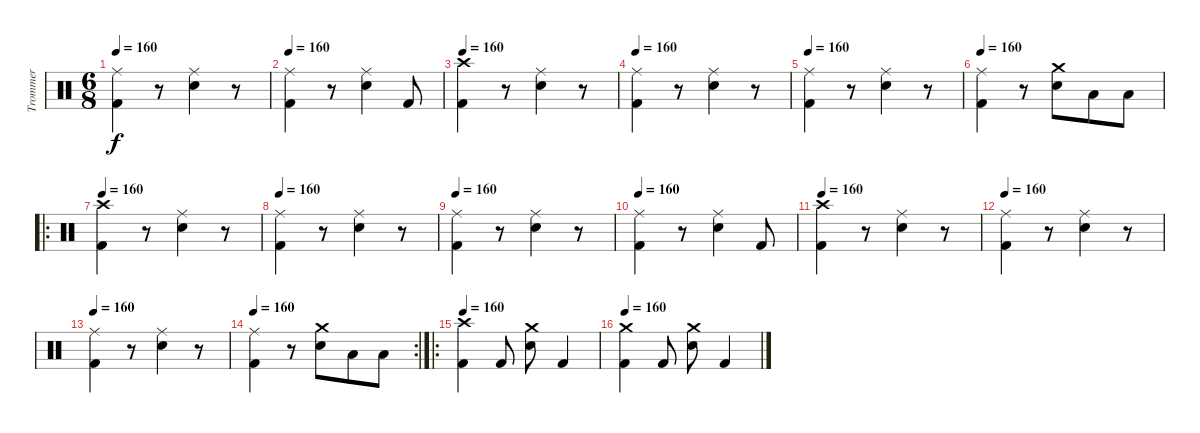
\track ("Trommer" "Trommer") {instrument percussion}
\staff {score}
\articulation defaults
\ts (6 8)
\tempo 160
\clef neutral
\ks c
("Kick (hit) 2" "Ride (middle)").4{dy f} r.8 ("Snare (hit) 2" "Ride (middle)").4 r.8 |
\tempo 160
("Kick (hit) 2" "Ride (middle)").4 r.8 ("Snare (hit) 2" "Ride (middle)").4 "Kick (hit) 2".8 |
\tempo 160
("Kick (hit) 2" "Crash high (hit)").4 r.8 ("Snare (hit) 2" "Ride (middle)").4 r.8 |
\tempo 160
("Kick (hit) 2" "Ride (middle)").4 r.8 ("Snare (hit) 2" "Ride (middle)").4 r.8 |
\tempo 160
("Kick (hit) 2" "Ride (middle)").4 r.8 ("Snare (hit) 2" "Ride (middle)").4 r.8 |
\tempo 160
("Kick (hit) 2" "Ride (middle)").4 r.8 ("Snare (hit) 2" "Crash medium (hit)").8 "Low Tom (hit)".8 "Low Floor Tom (hit)".8 |
\ro
\tempo 160
("Kick (hit) 2" "Crash high (hit)").4 r.8 ("Snare (hit) 2" "Ride (middle)").4 r.8 |
\tempo 160
("Kick (hit) 2" "Ride (middle)").4 r.8 ("Snare (hit) 2" "Ride (middle)").4 r.8 |
\tempo 160
("Kick (hit) 2" "Ride (middle)").4 r.8 ("Snare (hit) 2" "Ride (middle)").4 r.8 |
\tempo 160
("Kick (hit) 2" "Ride (middle)").4 r.8 ("Snare (hit) 2" "Ride (middle)").4 "Kick (hit) 2".8 |
\tempo 160
("Kick (hit) 2" "Crash high (hit)").4 r.8 ("Snare (hit) 2" "Ride (middle)").4 r.8 |
\tempo 160
("Kick (hit) 2" "Ride (middle)").4 r.8 ("Snare (hit) 2" "Ride (middle)").4 r.8 |
\tempo 160
("Kick (hit) 2" "Ride (middle)").4 r.8 ("Snare (hit) 2" "Ride (middle)").4 r.8 |
\rc 2
\tempo 160
("Kick (hit) 2" "Ride (middle)").4 r.8 ("Snare (hit) 2" "Crash medium (hit)").8 "Low Tom (hit)".8 "Low Floor Tom (hit)".8 |
\ro
\tempo 160
("Kick (hit) 2" "Crash high (hit)").4 "Kick (hit) 2".8 ("Snare (hit) 2" "Crash medium (hit)").8 "Kick (hit) 2".4 |
\tempo 160
("Kick (hit) 2" "Crash medium (hit)").4 "Kick (hit) 2".8 ("Snare (hit) 2" "Crash medium (hit)").8 "Kick (hit) 2".4
